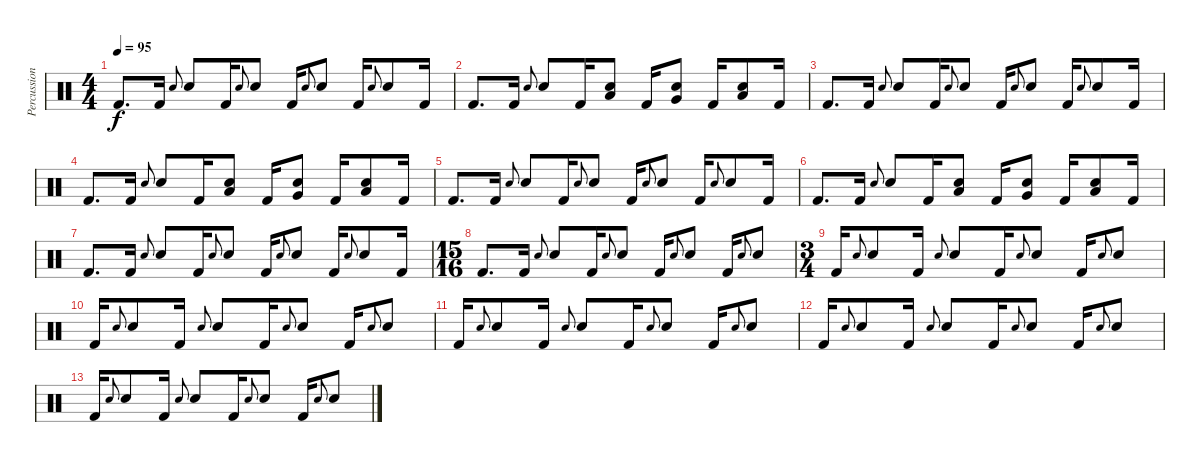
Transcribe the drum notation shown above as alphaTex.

\track ("Percussion" "Percussion") {instrument percussion}
\staff {score}
\articulation defaults
\ts (4 4)
\tempo 95
\clef neutral
\ks c "Kick (hit) 2".8{d dy f volume 12} "Kick (hit) 2".16 "Electric Snare (hit)".8{gr onbeat} "Electric Snare (hit)".8{volume 4} "Kick (hit) 2".16 "Electric Snare (hit)".8{gr onbeat} "Electric Snare (hit)".8 "Kick (hit) 2".16 "Electric Snare (hit)".8{gr onbeat} "Electric Snare (hit)".8 "Kick (hit) 2".16 "Electric Snare (hit)".8{gr onbeat} "Electric Snare (hit)".8 "Kick (hit) 2".16
|
"Kick (hit) 2".8{d volume 12} "Kick (hit) 2".16 "Electric Snare (hit)".8{gr onbeat} "Electric Snare (hit)".8{volume 4} "Kick (hit) 2".16 ("Electric Snare (hit)" "Low Tom (hit)").8 "Kick (hit) 2".16 ("Electric Snare (hit)" "Very Low Tom (hit)").8 "Kick (hit) 2".16 ("Electric Snare (hit)" "Low Floor Tom (hit)").8 "Kick (hit) 2".16 |
"Kick (hit) 2".8{d volume 12} "Kick (hit) 2".16 "Electric Snare (hit)".8{gr onbeat} "Electric Snare (hit)".8{volume 4} "Kick (hit) 2".16 "Electric Snare (hit)".8{gr onbeat} "Electric Snare (hit)".8 "Kick (hit) 2".16 "Electric Snare (hit)".8{gr onbeat} "Electric Snare (hit)".8 "Kick (hit) 2".16 "Electric Snare (hit)".8{gr onbeat} "Electric Snare (hit)".8 "Kick (hit) 2".16 |
"Kick (hit) 2".8{d volume 12} "Kick (hit) 2".16 "Electric Snare (hit)".8{gr onbeat} "Electric Snare (hit)".8{volume 4} "Kick (hit) 2".16 ("Electric Snare (hit)" "Low Tom (hit)").8 "Kick (hit) 2".16 ("Electric Snare (hit)" "Very Low Tom (hit)").8 "Kick (hit) 2".16 ("Electric Snare (hit)" "Low Floor Tom (hit)").8 "Kick (hit) 2".16 |
"Kick (hit) 2".8{d volume 12} "Kick (hit) 2".16 "Electric Snare (hit)".8{gr onbeat} "Electric Snare (hit)".8{volume 4} "Kick (hit) 2".16 "Electric Snare (hit)".8{gr onbeat} "Electric Snare (hit)".8 "Kick (hit) 2".16 "Electric Snare (hit)".8{gr onbeat} "Electric Snare (hit)".8 "Kick (hit) 2".16 "Electric Snare (hit)".8{gr onbeat} "Electric Snare (hit)".8 "Kick (hit) 2".16 |
"Kick (hit) 2".8{d volume 12} "Kick (hit) 2".16 "Electric Snare (hit)".8{gr onbeat} "Electric Snare (hit)".8{volume 4} "Kick (hit) 2".16 ("Electric Snare (hit)" "Low Tom (hit)").8 "Kick (hit) 2".16 ("Electric Snare (hit)" "Very Low Tom (hit)").8 "Kick (hit) 2".16 ("Electric Snare (hit)" "Low Floor Tom (hit)").8 "Kick (hit) 2".16 |
"Kick (hit) 2".8{d volume 12} "Kick (hit) 2".16 "Electric Snare (hit)".8{gr onbeat} "Electric Snare (hit)".8 "Kick (hit) 2".16 "Electric Snare (hit)".8{gr onbeat} "Electric Snare (hit)".8 "Kick (hit) 2".16 "Electric Snare (hit)".8{gr onbeat} "Electric Snare (hit)".8 "Kick (hit) 2".16 "Electric Snare (hit)".8{gr onbeat} "Electric Snare (hit)".8 "Kick (hit) 2".16 |
\ts (15 16)
"Kick (hit) 2".8{d} "Kick (hit) 2".16 "Electric Snare (hit)".8{gr onbeat} "Electric Snare (hit)".8 "Kick (hit) 2".16 "Electric Snare (hit)".8{gr onbeat} "Electric Snare (hit)".8 "Kick (hit) 2".16 "Electric Snare (hit)".8{gr onbeat} "Electric Snare (hit)".8 "Kick (hit) 2".16 "Electric Snare (hit)".8{gr onbeat} "Electric Snare (hit)".8 |
\ts (3 4)
"Kick (hit) 2".16{volume 0} "Electric Snare (hit)".8{gr onbeat} "Electric Snare (hit)".8 "Kick (hit) 2".16 "Electric Snare (hit)".8{gr onbeat} "Electric Snare (hit)".8 "Kick (hit) 2".16 "Electric Snare (hit)".8{gr onbeat} "Electric Snare (hit)".8 "Kick (hit) 2".16 "Electric Snare (hit)".8{gr onbeat} "Electric Snare (hit)".8 |
"Kick (hit) 2".16 "Electric Snare (hit)".8{gr onbeat} "Electric Snare (hit)".8 "Kick (hit) 2".16 "Electric Snare (hit)".8{gr onbeat} "Electric Snare (hit)".8 "Kick (hit) 2".16 "Electric Snare (hit)".8{gr onbeat} "Electric Snare (hit)".8 "Kick (hit) 2".16 "Electric Snare (hit)".8{gr onbeat} "Electric Snare (hit)".8 |
"Kick (hit) 2".16 "Electric Snare (hit)".8{gr onbeat} "Electric Snare (hit)".8 "Kick (hit) 2".16 "Electric Snare (hit)".8{gr onbeat} "Electric Snare (hit)".8 "Kick (hit) 2".16 "Electric Snare (hit)".8{gr onbeat} "Electric Snare (hit)".8 "Kick (hit) 2".16 "Electric Snare (hit)".8{gr onbeat} "Electric Snare (hit)".8 |
"Kick (hit) 2".16 "Electric Snare (hit)".8{gr onbeat} "Electric Snare (hit)".8 "Kick (hit) 2".16 "Electric Snare (hit)".8{gr onbeat} "Electric Snare (hit)".8 "Kick (hit) 2".16 "Electric Snare (hit)".8{gr onbeat} "Electric Snare (hit)".8 "Kick (hit) 2".16 "Electric Snare (hit)".8{gr onbeat} "Electric Snare (hit)".8 |
"Kick (hit) 2".16 "Electric Snare (hit)".8{gr onbeat} "Electric Snare (hit)".8 "Kick (hit) 2".16 "Electric Snare (hit)".8{gr onbeat} "Electric Snare (hit)".8 "Kick (hit) 2".16 "Electric Snare (hit)".8{gr onbeat} "Electric Snare (hit)".8 "Kick (hit) 2".16 "Electric Snare (hit)".8{gr onbeat} "Electric Snare (hit)".8
